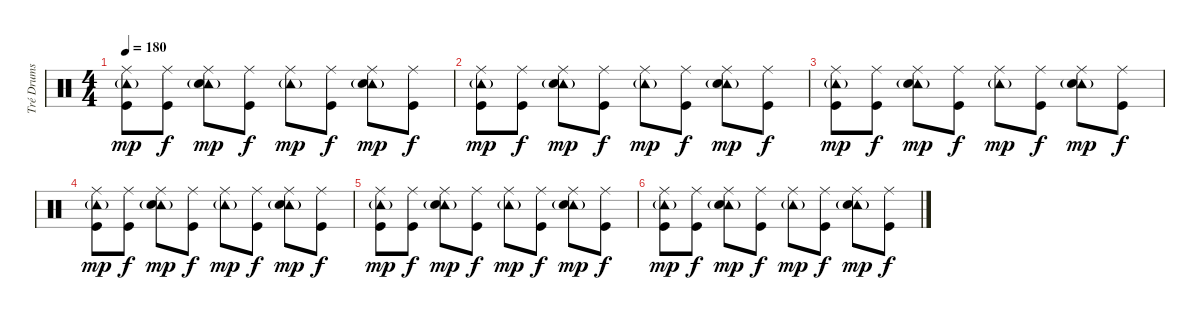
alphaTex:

\track ("Tré Drums" "Tré Drums") {instrument percussion}
\staff {score}
\articulation defaults
\ts (4 4)
\tempo 180
\clef neutral
\ks c
("Tambourine (hit)"{g} "Ride (middle)" "Kick (hit)").8{dy mp} ("Ride (middle)" "Kick (hit)").8{dy f} ("Tambourine (hit)"{g} "Ride (middle)" "Electric Snare (hit)").8{dy mp} ("Ride (middle)" "Kick (hit)").8{dy f} ("Tambourine (hit)"{g} "Ride (middle)").8{dy mp} ("Ride (middle)" "Kick (hit)").8{dy f} ("Tambourine (hit)"{g} "Ride (middle)" "Electric Snare (hit)").8{dy mp} ("Ride (middle)" "Kick (hit)").8{dy f} |
("Tambourine (hit)"{g} "Ride (middle)" "Kick (hit)").8{dy mp} ("Ride (middle)" "Kick (hit)").8{dy f} ("Tambourine (hit)"{g} "Ride (middle)" "Electric Snare (hit)").8{dy mp} ("Ride (middle)" "Kick (hit)").8{dy f} ("Tambourine (hit)"{g} "Ride (middle)").8{dy mp} ("Ride (middle)" "Kick (hit)").8{dy f} ("Tambourine (hit)"{g} "Ride (middle)" "Electric Snare (hit)").8{dy mp} ("Ride (middle)" "Kick (hit)").8{dy f} |
("Tambourine (hit)"{g} "Ride (middle)" "Kick (hit)").8{dy mp} ("Ride (middle)" "Kick (hit)").8{dy f} ("Tambourine (hit)"{g} "Ride (middle)" "Electric Snare (hit)").8{dy mp} ("Ride (middle)" "Kick (hit)").8{dy f} ("Tambourine (hit)"{g} "Ride (middle)").8{dy mp} ("Ride (middle)" "Kick (hit)").8{dy f} ("Tambourine (hit)"{g} "Ride (middle)" "Electric Snare (hit)").8{dy mp} ("Ride (middle)" "Kick (hit)").8{dy f} |
("Tambourine (hit)"{g} "Ride (middle)" "Kick (hit)").8{dy mp} ("Ride (middle)" "Kick (hit)").8{dy f} ("Tambourine (hit)"{g} "Ride (middle)" "Electric Snare (hit)").8{dy mp} ("Ride (middle)" "Kick (hit)").8{dy f} ("Tambourine (hit)"{g} "Ride (middle)").8{dy mp} ("Ride (middle)" "Kick (hit)").8{dy f} ("Tambourine (hit)"{g} "Ride (middle)" "Electric Snare (hit)").8{dy mp} ("Ride (middle)" "Kick (hit)").8{dy f} |
("Tambourine (hit)"{g} "Ride (middle)" "Kick (hit)").8{dy mp} ("Ride (middle)" "Kick (hit)").8{dy f} ("Tambourine (hit)"{g} "Ride (middle)" "Electric Snare (hit)").8{dy mp} ("Ride (middle)" "Kick (hit)").8{dy f} ("Tambourine (hit)"{g} "Ride (middle)").8{dy mp} ("Ride (middle)" "Kick (hit)").8{dy f} ("Tambourine (hit)"{g} "Ride (middle)" "Electric Snare (hit)").8{dy mp} ("Ride (middle)" "Kick (hit)").8{dy f} |
("Tambourine (hit)"{g} "Ride (middle)" "Kick (hit)").8{dy mp} ("Ride (middle)" "Kick (hit)").8{dy f} ("Tambourine (hit)"{g} "Ride (middle)" "Electric Snare (hit)").8{dy mp} ("Ride (middle)" "Kick (hit)").8{dy f} ("Tambourine (hit)"{g} "Ride (middle)").8{dy mp} ("Ride (middle)" "Kick (hit)").8{dy f} ("Tambourine (hit)"{g} "Ride (middle)" "Electric Snare (hit)").8{dy mp} ("Ride (middle)" "Kick (hit)").8{dy f}
